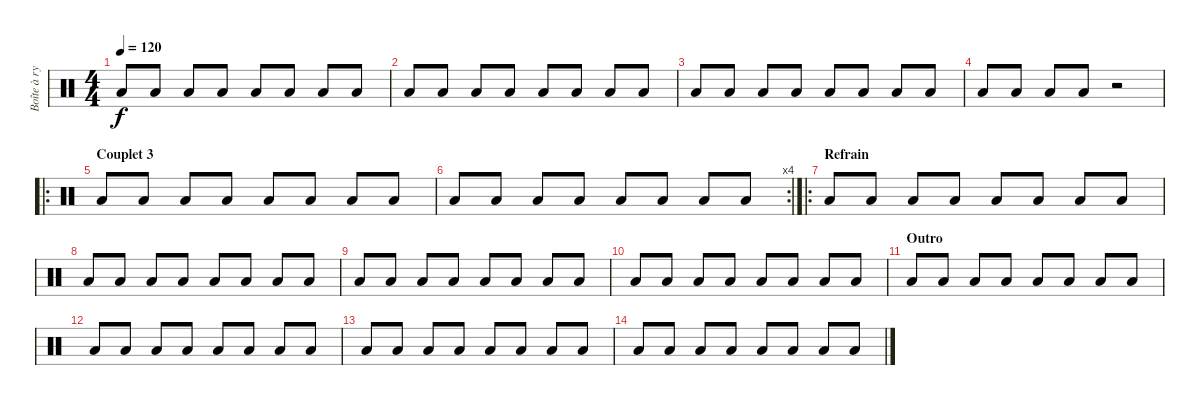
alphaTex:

\track ("Boîte à rythme" "Boîte à ry") {instrument percussion}
\staff {score}
\articulation defaults
\ts (4 4)
\tempo 120
\clef neutral
\ks c "Low Floor Tom (hit)".8{dy f} "Low Floor Tom (hit)".8 "Low Floor Tom (hit)".8 "Low Floor Tom (hit)".8 "Low Floor Tom (hit)".8 "Low Floor Tom (hit)".8 "Low Floor Tom (hit)".8 "Low Floor Tom (hit)".8
|
"Low Floor Tom (hit)".8 "Low Floor Tom (hit)".8 "Low Floor Tom (hit)".8 "Low Floor Tom (hit)".8 "Low Floor Tom (hit)".8 "Low Floor Tom (hit)".8 "Low Floor Tom (hit)".8 "Low Floor Tom (hit)".8 |
"Low Floor Tom (hit)".8 "Low Floor Tom (hit)".8 "Low Floor Tom (hit)".8 "Low Floor Tom (hit)".8 "Low Floor Tom (hit)".8 "Low Floor Tom (hit)".8 "Low Floor Tom (hit)".8 "Low Floor Tom (hit)".8 |
"Low Floor Tom (hit)".8 "Low Floor Tom (hit)".8 "Low Floor Tom (hit)".8 "Low Floor Tom (hit)".8 r.2 |
\ro
\section ("" "Couplet 3")
"Low Floor Tom (hit)".8 "Low Floor Tom (hit)".8 "Low Floor Tom (hit)".8 "Low Floor Tom (hit)".8 "Low Floor Tom (hit)".8 "Low Floor Tom (hit)".8 "Low Floor Tom (hit)".8 "Low Floor Tom (hit)".8 |
\rc 4 "Low Floor Tom (hit)".8 "Low Floor Tom (hit)".8 "Low Floor Tom (hit)".8 "Low Floor Tom (hit)".8 "Low Floor Tom (hit)".8 "Low Floor Tom (hit)".8 "Low Floor Tom (hit)".8 "Low Floor Tom (hit)".8
|
\ro
\section ("" "Refrain")
"Low Floor Tom (hit)".8 "Low Floor Tom (hit)".8 "Low Floor Tom (hit)".8 "Low Floor Tom (hit)".8 "Low Floor Tom (hit)".8 "Low Floor Tom (hit)".8 "Low Floor Tom (hit)".8 "Low Floor Tom (hit)".8 |
"Low Floor Tom (hit)".8 "Low Floor Tom (hit)".8 "Low Floor Tom (hit)".8 "Low Floor Tom (hit)".8 "Low Floor Tom (hit)".8 "Low Floor Tom (hit)".8 "Low Floor Tom (hit)".8 "Low Floor Tom (hit)".8 |
"Low Floor Tom (hit)".8 "Low Floor Tom (hit)".8 "Low Floor Tom (hit)".8 "Low Floor Tom (hit)".8 "Low Floor Tom (hit)".8 "Low Floor Tom (hit)".8 "Low Floor Tom (hit)".8 "Low Floor Tom (hit)".8 |
"Low Floor Tom (hit)".8 "Low Floor Tom (hit)".8 "Low Floor Tom (hit)".8 "Low Floor Tom (hit)".8 "Low Floor Tom (hit)".8 "Low Floor Tom (hit)".8 "Low Floor Tom (hit)".8 "Low Floor Tom (hit)".8 |
\section ("" "Outro")
"Low Floor Tom (hit)".8 "Low Floor Tom (hit)".8 "Low Floor Tom (hit)".8 "Low Floor Tom (hit)".8 "Low Floor Tom (hit)".8 "Low Floor Tom (hit)".8 "Low Floor Tom (hit)".8 "Low Floor Tom (hit)".8 |
"Low Floor Tom (hit)".8 "Low Floor Tom (hit)".8 "Low Floor Tom (hit)".8 "Low Floor Tom (hit)".8 "Low Floor Tom (hit)".8 "Low Floor Tom (hit)".8 "Low Floor Tom (hit)".8 "Low Floor Tom (hit)".8 |
"Low Floor Tom (hit)".8 "Low Floor Tom (hit)".8 "Low Floor Tom (hit)".8 "Low Floor Tom (hit)".8 "Low Floor Tom (hit)".8 "Low Floor Tom (hit)".8 "Low Floor Tom (hit)".8 "Low Floor Tom (hit)".8 |
"Low Floor Tom (hit)".8 "Low Floor Tom (hit)".8 "Low Floor Tom (hit)".8 "Low Floor Tom (hit)".8 "Low Floor Tom (hit)".8 "Low Floor Tom (hit)".8 "Low Floor Tom (hit)".8 "Low Floor Tom (hit)".8
